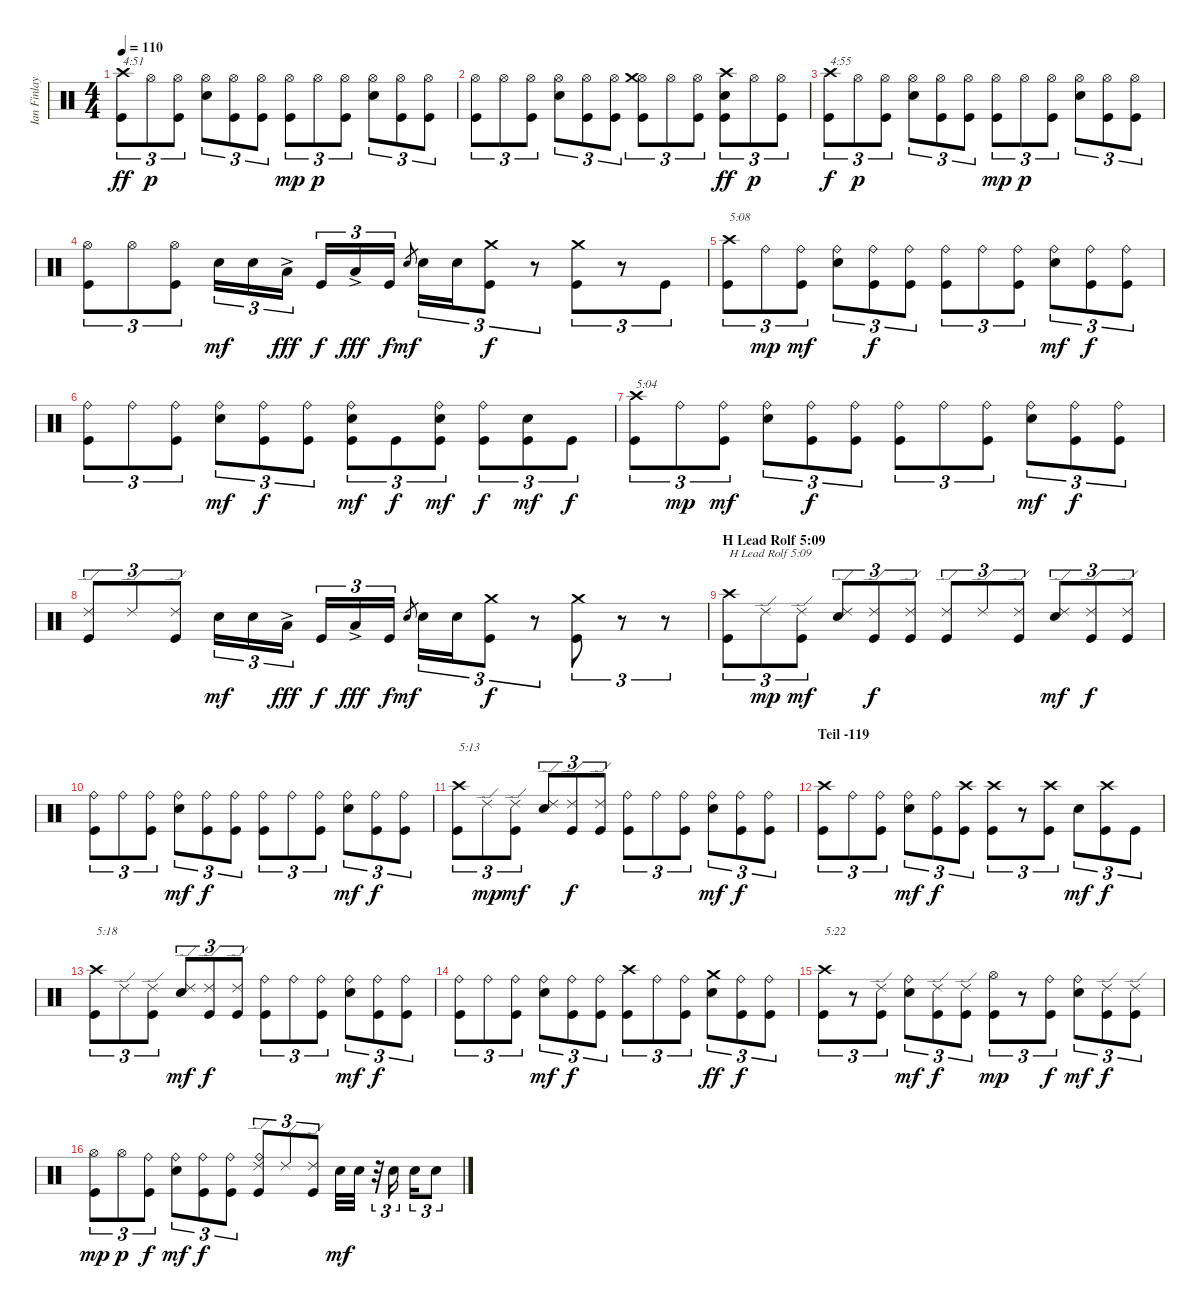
\track ("Ian Finlay" "Ian Finlay") {instrument percussion}
\staff {score}
\articulation defaults
\ts (4 4)
\tempo 110
\clef neutral
\ks c
("Kick (hit)" "Crash high (hit)").8{tu (3 2) txt "4:51" dy ff} "Hi-Hat (open)".8{tu (3 2) dy p} ("Kick (hit)" "Hi-Hat (open)").8{tu (3 2)} ("Snare (hit) 2" "Hi-Hat (open)").8{tu (3 2)} ("Kick (hit)" "Hi-Hat (open)").8{tu (3 2)} ("Kick (hit)" "Hi-Hat (open)").8{tu (3 2)} ("Kick (hit)" "Hi-Hat (open)").8{tu (3 2) dy mp} "Hi-Hat (open)".8{tu (3 2) dy p} ("Kick (hit)" "Hi-Hat (open)").8{tu (3 2)} ("Snare (hit) 2" "Hi-Hat (open)").8{tu (3 2)} ("Kick (hit)" "Hi-Hat (open)").8{tu (3 2)} ("Kick (hit)" "Hi-Hat (open)").8{tu (3 2)} |
("Kick (hit)" "Hi-Hat (open)").8{tu (3 2)} "Hi-Hat (open)".8{tu (3 2)} ("Kick (hit)" "Hi-Hat (open)").8{tu (3 2)} ("Snare (hit) 2" "Hi-Hat (open)").8{tu (3 2)} ("Kick (hit)" "Hi-Hat (open)").8{tu (3 2)} ("Kick (hit)" "Hi-Hat (open)").8{tu (3 2)} ("Kick (hit)" "Hi-Hat (open)" "Crash medium (hit)").8{tu (3 2)} "Hi-Hat (open)".8{tu (3 2)} ("Kick (hit)" "Hi-Hat (open)").8{tu (3 2)} ("Kick (hit)" "Snare (hit) 2" "Crash high (hit)").8{tu (3 2) dy ff} "Hi-Hat (open)".8{tu (3 2) dy p} ("Kick (hit)" "Hi-Hat (open)").8{tu (3 2)} |
("Kick (hit)" "Crash high (hit)").8{tu (3 2) txt "4:55" dy f} "Hi-Hat (open)".8{tu (3 2) dy p} ("Kick (hit)" "Hi-Hat (open)").8{tu (3 2)} ("Snare (hit) 2" "Hi-Hat (open)").8{tu (3 2)} ("Kick (hit)" "Hi-Hat (open)").8{tu (3 2)} ("Kick (hit)" "Hi-Hat (open)").8{tu (3 2)} ("Kick (hit)" "Hi-Hat (open)").8{tu (3 2) dy mp} "Hi-Hat (open)".8{tu (3 2) dy p} ("Kick (hit)" "Hi-Hat (open)").8{tu (3 2)} ("Snare (hit) 2" "Hi-Hat (open)").8{tu (3 2)} ("Kick (hit)" "Hi-Hat (open)").8{tu (3 2)} ("Kick (hit)" "Hi-Hat (open)").8{tu (3 2)} |
("Kick (hit)" "Hi-Hat (open)").8{tu (3 2)} "Hi-Hat (open)".8{tu (3 2)} ("Kick (hit)" "Hi-Hat (open)").8{tu (3 2)} "Snare (hit) 2".16{tu (3 2) dy mf} "Snare (hit) 2".16{tu (3 2)} "Low Tom (hit)"{ac}.16{tu (3 2) dy fff} "Kick (hit)".16{tu (3 2) dy f} "Low Tom (hit)"{ac}.16{tu (3 2) dy fff} "Kick (hit)".16{tu (3 2) dy f} "Snare (hit) 2".8{gr dy mf} "Snare (hit) 2".16{tu (3 2)} "Snare (hit) 2".16{tu (3 2)} ("Kick (hit)" "Crash medium (hit)").8{tu (3 2) dy f} r.8{tu (3 2)} ("Kick (hit)" "Crash medium (hit)").8{tu (3 2)} r.8{tu (3 2)} "Kick (hit)".8{tu (3 2)} |
("Kick (hit)" "Crash high (hit)").8{tu (3 2) txt "5:08"} "Ride (bell)".8{tu (3 2) dy mp} ("Kick (hit)" "Ride (bell)").8{tu (3 2) dy mf} ("Snare (hit) 2" "Ride (bell)").8{tu (3 2)} ("Kick (hit)" "Ride (bell)").8{tu (3 2) dy f} ("Kick (hit)" "Ride (bell)").8{tu (3 2)} ("Kick (hit)" "Ride (bell)").8{tu (3 2)} "Ride (bell)".8{tu (3 2)} ("Kick (hit)" "Ride (bell)").8{tu (3 2)} ("Snare (hit) 2" "Ride (bell)").8{tu (3 2) dy mf} ("Kick (hit)" "Ride (bell)").8{tu (3 2) dy f} ("Kick (hit)" "Ride (bell)").8{tu (3 2)} |
("Kick (hit)" "Ride (bell)").8{tu (3 2)} "Ride (bell)".8{tu (3 2)} ("Kick (hit)" "Ride (bell)").8{tu (3 2)} ("Snare (hit) 2" "Ride (bell)").8{tu (3 2) dy mf} ("Kick (hit)" "Ride (bell)").8{tu (3 2) dy f} ("Kick (hit)" "Ride (bell)").8{tu (3 2)} ("Kick (hit)" "Snare (hit) 2" "Ride (bell)").8{tu (3 2) dy mf} "Kick (hit)".8{tu (3 2) dy f} ("Kick (hit)" "Snare (hit) 2" "Ride (bell)").8{tu (3 2) dy mf} ("Kick (hit)" "Ride (bell)").8{tu (3 2) dy f} ("Kick (hit)" "Snare (hit) 2").8{tu (3 2) dy mf} "Kick (hit)".8{tu (3 2) dy f} |
("Kick (hit)" "Crash high (hit)").8{tu (3 2) txt "5:04"} "Ride (bell)".8{tu (3 2) dy mp} ("Kick (hit)" "Ride (bell)").8{tu (3 2) dy mf} ("Snare (hit) 2" "Ride (bell)").8{tu (3 2)} ("Kick (hit)" "Ride (bell)").8{tu (3 2) dy f} ("Kick (hit)" "Ride (bell)").8{tu (3 2)} ("Kick (hit)" "Ride (bell)").8{tu (3 2)} "Ride (bell)".8{tu (3 2)} ("Kick (hit)" "Ride (bell)").8{tu (3 2)} ("Snare (hit) 2" "Ride (bell)").8{tu (3 2) dy mf} ("Kick (hit)" "Ride (bell)").8{tu (3 2) dy f} ("Kick (hit)" "Ride (bell)").8{tu (3 2)} |
("Kick (hit)" "Ride (edge) 2").8{tu (3 2)} "Ride (edge) 2".8{tu (3 2)} ("Kick (hit)" "Ride (edge) 2").8{tu (3 2)} "Snare (hit) 2".16{tu (3 2) dy mf} "Snare (hit) 2".16{tu (3 2)} "Low Tom (hit)"{ac}.16{tu (3 2) dy fff} "Kick (hit)".16{tu (3 2) dy f} "Low Tom (hit)"{ac}.16{tu (3 2) dy fff} "Kick (hit)".16{tu (3 2) dy f} "Snare (hit) 2".8{gr dy mf} "Snare (hit) 2".16{tu (3 2)} "Snare (hit) 2".16{tu (3 2)} ("Kick (hit)" "Crash medium (hit)").8{tu (3 2) dy f} r.8{tu (3 2)} ("Kick (hit)" "Crash medium (hit)").8{tu (3 2)} r.8{tu (3 2)} r.8{tu (3 2)} |
\section ("" "H Lead Rolf 5:09")
("Kick (hit)" "Crash high (hit)").8{tu (3 2) txt "H Lead Rolf 5:09"} "Ride (edge) 2".8{tu (3 2) dy mp} ("Kick (hit)" "Ride (edge) 2").8{tu (3 2) dy mf} ("Snare (hit) 2" "Ride (edge) 2").8{tu (3 2)} ("Kick (hit)" "Ride (edge) 2").8{tu (3 2) dy f} ("Kick (hit)" "Ride (edge) 2").8{tu (3 2)} ("Kick (hit)" "Ride (edge) 2").8{tu (3 2)} "Ride (edge) 2".8{tu (3 2)} ("Kick (hit)" "Ride (edge) 2").8{tu (3 2)} ("Snare (hit) 2" "Ride (edge) 2").8{tu (3 2) dy mf} ("Kick (hit)" "Ride (edge) 2").8{tu (3 2) dy f} ("Kick (hit)" "Ride (edge) 2").8{tu (3 2)} |
("Kick (hit)" "Ride (bell)").8{tu (3 2)} "Ride (bell)".8{tu (3 2)} ("Kick (hit)" "Ride (bell)").8{tu (3 2)} ("Snare (hit) 2" "Ride (bell)").8{tu (3 2) dy mf} ("Kick (hit)" "Ride (bell)").8{tu (3 2) dy f} ("Kick (hit)" "Ride (bell)").8{tu (3 2)} ("Kick (hit)" "Ride (bell)").8{tu (3 2)} "Ride (bell)".8{tu (3 2)} ("Kick (hit)" "Ride (bell)").8{tu (3 2)} ("Snare (hit) 2" "Ride (bell)").8{tu (3 2) dy mf} ("Kick (hit)" "Ride (bell)").8{tu (3 2) dy f} ("Kick (hit)" "Ride (bell)").8{tu (3 2)} |
("Kick (hit)" "Crash high (hit)").8{tu (3 2) txt "5:13"} "Ride (edge) 2".8{tu (3 2) dy mp} ("Kick (hit)" "Ride (edge) 2").8{tu (3 2) dy mf} ("Snare (hit) 2" "Ride (edge) 2").8{tu (3 2)} ("Kick (hit)" "Ride (edge) 2").8{tu (3 2) dy f} ("Kick (hit)" "Ride (edge) 2").8{tu (3 2)} ("Kick (hit)" "Ride (bell)").8{tu (3 2)} "Ride (bell)".8{tu (3 2)} ("Kick (hit)" "Ride (bell)").8{tu (3 2)} ("Snare (hit) 2" "Ride (bell)").8{tu (3 2) dy mf} ("Kick (hit)" "Ride (bell)").8{tu (3 2) dy f} ("Kick (hit)" "Ride (bell)").8{tu (3 2)} |
\section ("" "Teil -119")
("Kick (hit)" "Crash high (hit)").8{tu (3 2)} "Ride (bell)".8{tu (3 2)} ("Kick (hit)" "Ride (bell)").8{tu (3 2)} ("Snare (hit) 2" "Ride (bell)").8{tu (3 2) dy mf} ("Kick (hit)" "Ride (bell)").8{tu (3 2) dy f} ("Kick (hit)" "Crash high (hit)").8{tu (3 2)} ("Kick (hit)" "Crash high (hit)").8{tu (3 2)} r.8{tu (3 2)} ("Kick (hit)" "Crash high (hit)").8{tu (3 2)} "Snare (hit) 2".8{tu (3 2) dy mf} ("Kick (hit)" "Crash high (hit)").8{tu (3 2) dy f} "Kick (hit)".8{tu (3 2)} |
("Kick (hit)" "Crash high (hit)").8{tu (3 2) txt "5:18"} "Ride (edge) 2".8{tu (3 2)} ("Kick (hit)" "Ride (edge) 2").8{tu (3 2)} ("Snare (hit) 2" "Ride (edge) 2").8{tu (3 2) dy mf} ("Kick (hit)" "Ride (edge) 2").8{tu (3 2) dy f} ("Kick (hit)" "Ride (edge) 2").8{tu (3 2)} ("Kick (hit)" "Ride (bell)").8{tu (3 2)} "Ride (bell)".8{tu (3 2)} ("Kick (hit)" "Ride (bell)").8{tu (3 2)} ("Snare (hit) 2" "Ride (bell)").8{tu (3 2) dy mf} ("Kick (hit)" "Ride (bell)").8{tu (3 2) dy f} ("Kick (hit)" "Ride (bell)").8{tu (3 2)} |
("Kick (hit)" "Ride (bell)").8{tu (3 2)} "Ride (bell)".8{tu (3 2)} ("Kick (hit)" "Ride (bell)").8{tu (3 2)} ("Snare (hit) 2" "Ride (bell)").8{tu (3 2) dy mf} ("Kick (hit)" "Ride (bell)").8{tu (3 2) dy f} ("Kick (hit)" "Ride (bell)").8{tu (3 2)} ("Kick (hit)" "Crash high (hit)").8{tu (3 2)} "Ride (bell)".8{tu (3 2)} ("Kick (hit)" "Ride (bell)").8{tu (3 2)} ("Snare (hit) 2" "Crash medium (hit)").8{tu (3 2) dy ff} ("Kick (hit)" "Ride (bell)").8{tu (3 2) dy f} ("Kick (hit)" "Ride (bell)").8{tu (3 2)} |
("Kick (hit)" "Crash high (hit)").8{tu (3 2) txt "5:22"} r.8{tu (3 2)} ("Kick (hit)" "Ride (edge) 2").8{tu (3 2)} ("Snare (hit) 2" "Ride (bell)").8{tu (3 2) dy mf} ("Kick (hit)" "Ride (edge) 2").8{tu (3 2) dy f} ("Kick (hit)" "Ride (edge) 2").8{tu (3 2)} ("Kick (hit)" "Hi-Hat (open)").8{tu (3 2) dy mp} r.8{tu (3 2)} ("Kick (hit)" "Ride (bell)").8{tu (3 2) dy f} ("Snare (hit) 2" "Ride (bell)").8{tu (3 2) dy mf} ("Kick (hit)" "Ride (edge) 2").8{tu (3 2) dy f} ("Kick (hit)" "Ride (edge) 2").8{tu (3 2)} |
("Kick (hit)" "Hi-Hat (open)").8{tu (3 2) dy mp} "Hi-Hat (open)".8{tu (3 2) dy p} ("Kick (hit)" "Ride (bell)").8{tu (3 2) dy f} ("Snare (hit) 2" "Ride (bell)").8{tu (3 2) dy mf} ("Kick (hit)" "Ride (bell)").8{tu (3 2) dy f} ("Kick (hit)" "Ride (bell)").8{tu (3 2)} ("Kick (hit)" "Ride (edge) 2" "Ride (bell)").8{tu (3 2)} "Ride (edge) 2".8{tu (3 2)} ("Kick (hit)" "Ride (edge) 2").8{tu (3 2)} "Snare (hit) 2".32{dy mf} "Snare (hit) 2".32 r.32{tu (3 2)} "Snare (hit) 2".16{tu (3 2)} "Snare (hit) 2".16{tu (3 2)} "Snare (hit) 2".8{tu (3 2)}
